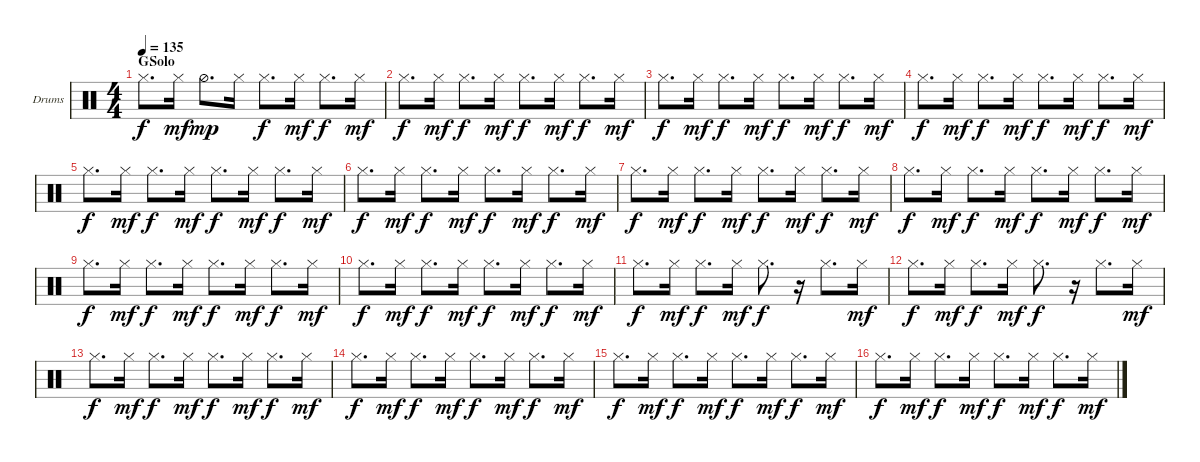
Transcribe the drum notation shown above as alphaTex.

\bracketExtendMode groupsimilarinstruments
\firstSystemTrackNameOrientation horizontal
\otherSystemsTrackNameOrientation horizontal
\track ("HH" "Drums") {instrument percussion}
\staff {score}
\articulation defaults
\ts (4 4)
\section ("" "GSolo")
\tempo 135
\clef neutral
\ks c "Hi-Hat (closed)".8{d dy f} "Hi-Hat (closed)".16{dy mf} "Hi-Hat (half)".8{d dy mp} "Hi-Hat (closed)".16 "Hi-Hat (closed)".8{d dy f} "Hi-Hat (closed)".16{dy mf} "Hi-Hat (closed)".8{d dy f} "Hi-Hat (closed)".16{dy mf}
|
"Hi-Hat (closed)".8{d dy f} "Hi-Hat (closed)".16{dy mf} "Hi-Hat (closed)".8{d dy f} "Hi-Hat (closed)".16{dy mf} "Hi-Hat (closed)".8{d dy f} "Hi-Hat (closed)".16{dy mf} "Hi-Hat (closed)".8{d dy f} "Hi-Hat (closed)".16{dy mf} |
"Hi-Hat (closed)".8{d dy f} "Hi-Hat (closed)".16{dy mf} "Hi-Hat (closed)".8{d dy f} "Hi-Hat (closed)".16{dy mf} "Hi-Hat (closed)".8{d dy f} "Hi-Hat (closed)".16{dy mf} "Hi-Hat (closed)".8{d dy f} "Hi-Hat (closed)".16{dy mf} |
"Hi-Hat (closed)".8{d dy f} "Hi-Hat (closed)".16{dy mf} "Hi-Hat (closed)".8{d dy f} "Hi-Hat (closed)".16{dy mf} "Hi-Hat (closed)".8{d dy f} "Hi-Hat (closed)".16{dy mf} "Hi-Hat (closed)".8{d dy f} "Hi-Hat (closed)".16{dy mf} |
"Hi-Hat (closed)".8{d dy f} "Hi-Hat (closed)".16{dy mf} "Hi-Hat (closed)".8{d dy f} "Hi-Hat (closed)".16{dy mf} "Hi-Hat (closed)".8{d dy f} "Hi-Hat (closed)".16{dy mf} "Hi-Hat (closed)".8{d dy f} "Hi-Hat (closed)".16{dy mf} |
"Hi-Hat (closed)".8{d dy f} "Hi-Hat (closed)".16{dy mf} "Hi-Hat (closed)".8{d dy f} "Hi-Hat (closed)".16{dy mf} "Hi-Hat (closed)".8{d dy f} "Hi-Hat (closed)".16{dy mf} "Hi-Hat (closed)".8{d dy f} "Hi-Hat (closed)".16{dy mf} |
"Hi-Hat (closed)".8{d dy f} "Hi-Hat (closed)".16{dy mf} "Hi-Hat (closed)".8{d dy f} "Hi-Hat (closed)".16{dy mf} "Hi-Hat (closed)".8{d dy f} "Hi-Hat (closed)".16{dy mf} "Hi-Hat (closed)".8{d dy f} "Hi-Hat (closed)".16{dy mf} |
"Hi-Hat (closed)".8{d dy f} "Hi-Hat (closed)".16{dy mf} "Hi-Hat (closed)".8{d dy f} "Hi-Hat (closed)".16{dy mf} "Hi-Hat (closed)".8{d dy f} "Hi-Hat (closed)".16{dy mf} "Hi-Hat (closed)".8{d dy f} "Hi-Hat (closed)".16{dy mf} |
"Hi-Hat (closed)".8{d dy f} "Hi-Hat (closed)".16{dy mf} "Hi-Hat (closed)".8{d dy f} "Hi-Hat (closed)".16{dy mf} "Hi-Hat (closed)".8{d dy f} "Hi-Hat (closed)".16{dy mf} "Hi-Hat (closed)".8{d dy f} "Hi-Hat (closed)".16{dy mf} |
"Hi-Hat (closed)".8{d dy f} "Hi-Hat (closed)".16{dy mf} "Hi-Hat (closed)".8{d dy f} "Hi-Hat (closed)".16{dy mf} "Hi-Hat (closed)".8{d dy f} "Hi-Hat (closed)".16{dy mf} "Hi-Hat (closed)".8{d dy f} "Hi-Hat (closed)".16{dy mf} |
"Hi-Hat (closed)".8{d dy f} "Hi-Hat (closed)".16{dy mf} "Hi-Hat (closed)".8{d dy f} "Hi-Hat (closed)".16{dy mf} "Hi-Hat (closed)".8{d dy f} r.16 "Hi-Hat (closed)".8{d} "Hi-Hat (closed)".16{dy mf} |
"Hi-Hat (closed)".8{d dy f} "Hi-Hat (closed)".16{dy mf} "Hi-Hat (closed)".8{d dy f} "Hi-Hat (closed)".16{dy mf} "Hi-Hat (closed)".8{d dy f} r.16 "Hi-Hat (closed)".8{d} "Hi-Hat (closed)".16{dy mf} |
"Hi-Hat (closed)".8{d dy f} "Hi-Hat (closed)".16{dy mf} "Hi-Hat (closed)".8{d dy f} "Hi-Hat (closed)".16{dy mf} "Hi-Hat (closed)".8{d dy f} "Hi-Hat (closed)".16{dy mf} "Hi-Hat (closed)".8{d dy f} "Hi-Hat (closed)".16{dy mf} |
"Hi-Hat (closed)".8{d dy f} "Hi-Hat (closed)".16{dy mf} "Hi-Hat (closed)".8{d dy f} "Hi-Hat (closed)".16{dy mf} "Hi-Hat (closed)".8{d dy f} "Hi-Hat (closed)".16{dy mf} "Hi-Hat (closed)".8{d dy f} "Hi-Hat (closed)".16{dy mf} |
"Hi-Hat (closed)".8{d dy f} "Hi-Hat (closed)".16{dy mf} "Hi-Hat (closed)".8{d dy f} "Hi-Hat (closed)".16{dy mf} "Hi-Hat (closed)".8{d dy f} "Hi-Hat (closed)".16{dy mf} "Hi-Hat (closed)".8{d dy f} "Hi-Hat (closed)".16{dy mf} |
"Hi-Hat (closed)".8{d dy f} "Hi-Hat (closed)".16{dy mf} "Hi-Hat (closed)".8{d dy f} "Hi-Hat (closed)".16{dy mf} "Hi-Hat (closed)".8{d dy f} "Hi-Hat (closed)".16{dy mf} "Hi-Hat (closed)".8{d dy f} "Hi-Hat (closed)".16{dy mf}
